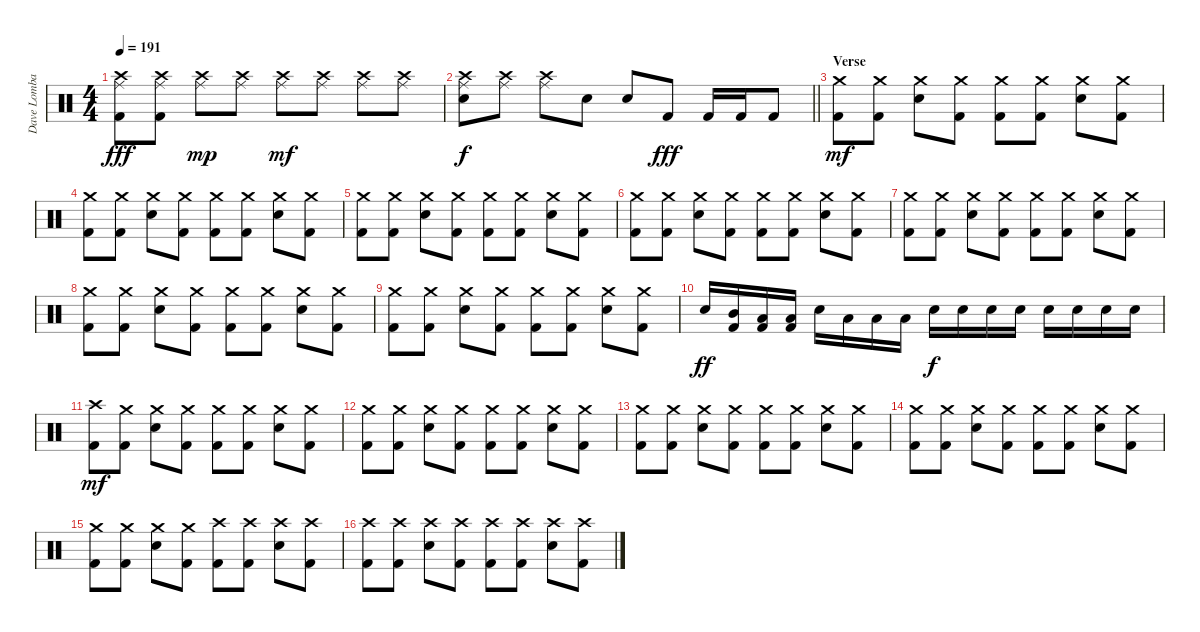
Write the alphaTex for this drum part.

\track ("Dave Lombardo" "Dave Lomba") {instrument percussion}
\staff {score}
\articulation defaults
\ts (4 4)
\tempo 191
\clef neutral
\ks c
("Crash high (hit)" "Ride (middle)" "Kick (hit) 2").8{dy fff} ("Crash high (hit)" "Ride (middle)" "Kick (hit) 2").8 ("Crash high (hit)" "Ride (middle)").8{dy mp} ("Crash high (hit)" "Ride (middle)").8 ("Crash high (hit)" "Ride (middle)").8{dy mf} ("Crash high (hit)" "Ride (middle)").8 ("Crash high (hit)" "Ride (middle)").8 ("Crash high (hit)" "Ride (middle)").8 |
\barLineRight lightlight
("Crash high (hit)" "Ride (middle)" "Snare (hit) 2").8{dy f} ("Crash high (hit)" "Ride (middle)").8 ("Crash high (hit)" "Ride (middle)").8 "Snare (hit) 2".8 "Snare (hit) 2".8 "Kick (hit) 2".8{dy fff} "Kick (hit) 2".16 "Kick (hit) 2".16 "Kick (hit) 2".8 |
\section ("" "Verse ")
("Crash medium (hit)" "Kick (hit) 2").8{dy mf} ("Crash medium (hit)" "Kick (hit) 2").8 ("Crash medium (hit)" "Snare (hit) 2").8 ("Crash medium (hit)" "Kick (hit) 2").8 ("Crash medium (hit)" "Kick (hit) 2").8 ("Crash medium (hit)" "Kick (hit) 2").8 ("Crash medium (hit)" "Snare (hit) 2").8 ("Crash medium (hit)" "Kick (hit) 2").8 |
("Crash medium (hit)" "Kick (hit) 2").8 ("Crash medium (hit)" "Kick (hit) 2").8 ("Crash medium (hit)" "Snare (hit) 2").8 ("Crash medium (hit)" "Kick (hit) 2").8 ("Crash medium (hit)" "Kick (hit) 2").8 ("Crash medium (hit)" "Kick (hit) 2").8 ("Crash medium (hit)" "Snare (hit) 2").8 ("Crash medium (hit)" "Kick (hit) 2").8 |
("Crash medium (hit)" "Kick (hit) 2").8 ("Crash medium (hit)" "Kick (hit) 2").8 ("Crash medium (hit)" "Snare (hit) 2").8 ("Crash medium (hit)" "Kick (hit) 2").8 ("Crash medium (hit)" "Kick (hit) 2").8 ("Crash medium (hit)" "Kick (hit) 2").8 ("Crash medium (hit)" "Snare (hit) 2").8 ("Crash medium (hit)" "Kick (hit) 2").8 |
("Crash medium (hit)" "Kick (hit) 2").8 ("Crash medium (hit)" "Kick (hit) 2").8 ("Crash medium (hit)" "Snare (hit) 2").8 ("Crash medium (hit)" "Kick (hit) 2").8 ("Crash medium (hit)" "Kick (hit) 2").8 ("Crash medium (hit)" "Kick (hit) 2").8 ("Crash medium (hit)" "Snare (hit) 2").8 ("Crash medium (hit)" "Kick (hit) 2").8 |
("Crash medium (hit)" "Kick (hit) 2").8 ("Crash medium (hit)" "Kick (hit) 2").8 ("Crash medium (hit)" "Snare (hit) 2").8 ("Crash medium (hit)" "Kick (hit) 2").8 ("Crash medium (hit)" "Kick (hit) 2").8 ("Crash medium (hit)" "Kick (hit) 2").8 ("Crash medium (hit)" "Snare (hit) 2").8 ("Crash medium (hit)" "Kick (hit) 2").8 |
("Crash medium (hit)" "Kick (hit) 2").8 ("Crash medium (hit)" "Kick (hit) 2").8 ("Crash medium (hit)" "Snare (hit) 2").8 ("Crash medium (hit)" "Kick (hit) 2").8 ("Crash medium (hit)" "Kick (hit) 2").8 ("Crash medium (hit)" "Kick (hit) 2").8 ("Crash medium (hit)" "Snare (hit) 2").8 ("Crash medium (hit)" "Kick (hit) 2").8 |
("Crash medium (hit)" "Kick (hit) 2").8 ("Crash medium (hit)" "Kick (hit) 2").8 ("Crash medium (hit)" "Snare (hit) 2").8 ("Crash medium (hit)" "Kick (hit) 2").8 ("Crash medium (hit)" "Kick (hit) 2").8 ("Crash medium (hit)" "Kick (hit) 2").8 ("Crash medium (hit)" "Snare (hit) 2").8 ("Crash medium (hit)" "Kick (hit) 2").8 |
"Snare (hit) 2".16{dy ff} ("Mid Tom (hit)" "Kick (hit) 2").16 ("Low Tom (hit)" "Kick (hit) 2").16 ("Low Floor Tom (hit)" "Kick (hit) 2").16 "Snare (hit) 2".16 "Low Floor Tom (hit)".16 "Low Floor Tom (hit)".16 "Low Floor Tom (hit)".16 "Snare (hit) 2".16{dy f} "Snare (hit) 2".16 "Snare (hit) 2".16 "Snare (hit) 2".16 "Snare (hit) 2".16 "Snare (hit) 2".16 "Snare (hit) 2".16 "Snare (hit) 2".16 |
("Crash high (hit)" "Kick (hit) 2").8{dy mf} ("Crash medium (hit)" "Kick (hit) 2").8 ("Crash medium (hit)" "Snare (hit) 2").8 ("Crash medium (hit)" "Kick (hit) 2").8 ("Crash medium (hit)" "Kick (hit) 2").8 ("Crash medium (hit)" "Kick (hit) 2").8 ("Crash medium (hit)" "Snare (hit) 2").8 ("Crash medium (hit)" "Kick (hit) 2").8 |
("Crash medium (hit)" "Kick (hit) 2").8 ("Crash medium (hit)" "Kick (hit) 2").8 ("Crash medium (hit)" "Snare (hit) 2").8 ("Crash medium (hit)" "Kick (hit) 2").8 ("Crash medium (hit)" "Kick (hit) 2").8 ("Crash medium (hit)" "Kick (hit) 2").8 ("Crash medium (hit)" "Snare (hit) 2").8 ("Crash medium (hit)" "Kick (hit) 2").8 |
("Crash medium (hit)" "Kick (hit) 2").8 ("Crash medium (hit)" "Kick (hit) 2").8 ("Crash medium (hit)" "Snare (hit) 2").8 ("Crash medium (hit)" "Kick (hit) 2").8 ("Crash medium (hit)" "Kick (hit) 2").8 ("Crash medium (hit)" "Kick (hit) 2").8 ("Crash medium (hit)" "Snare (hit) 2").8 ("Crash medium (hit)" "Kick (hit) 2").8 |
("Crash medium (hit)" "Kick (hit) 2").8 ("Crash medium (hit)" "Kick (hit) 2").8 ("Crash medium (hit)" "Snare (hit) 2").8 ("Crash medium (hit)" "Kick (hit) 2").8 ("Crash medium (hit)" "Kick (hit) 2").8 ("Crash medium (hit)" "Kick (hit) 2").8 ("Crash medium (hit)" "Snare (hit) 2").8 ("Crash medium (hit)" "Kick (hit) 2").8 |
("Crash medium (hit)" "Kick (hit) 2").8 ("Crash medium (hit)" "Kick (hit) 2").8 ("Crash medium (hit)" "Snare (hit) 2").8 ("Crash medium (hit)" "Kick (hit) 2").8 ("Crash high (hit)" "Kick (hit) 2").8 ("Crash high (hit)" "Kick (hit) 2").8 ("Crash high (hit)" "Snare (hit) 2").8 ("Crash high (hit)" "Kick (hit) 2").8 |
("Crash high (hit)" "Kick (hit) 2").8 ("Crash high (hit)" "Kick (hit) 2").8 ("Crash high (hit)" "Snare (hit) 2").8 ("Crash high (hit)" "Kick (hit) 2").8 ("Crash high (hit)" "Kick (hit) 2").8 ("Crash high (hit)" "Kick (hit) 2").8 ("Crash high (hit)" "Snare (hit) 2").8 ("Crash high (hit)" "Kick (hit) 2").8
